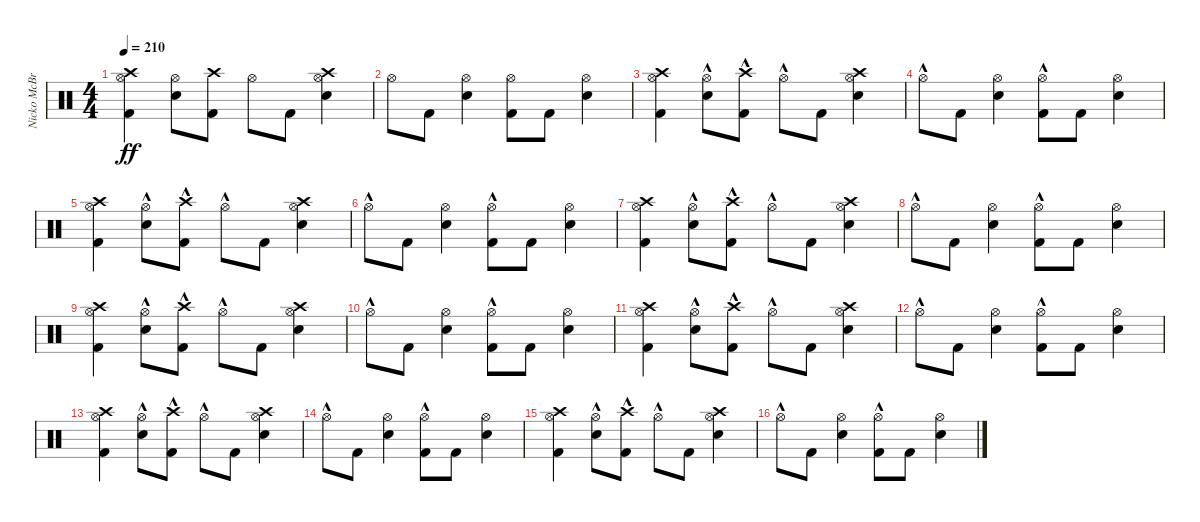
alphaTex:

\track ("Nicko McBrain" "Nicko McBr") {instrument percussion}
\staff {score}
\articulation defaults
\ts (4 4)
\tempo 210
\clef neutral
\ks c
("Kick (hit) 2" "Hi-Hat (open)" "Crash high (hit)").4{dy ff} ("Snare (hit) 2" "Hi-Hat (open)").8 ("Kick (hit) 2" "Crash high (hit)").8 "Hi-Hat (open)".8 "Kick (hit) 2".8 ("Snare (hit) 2" "Hi-Hat (open)" "Crash high (hit)").4 |
"Hi-Hat (open)".8 "Kick (hit) 2".8 ("Snare (hit) 2" "Hi-Hat (open)").4 ("Kick (hit) 2" "Hi-Hat (open)").8 "Kick (hit) 2".8 ("Snare (hit) 2" "Hi-Hat (open)").4 |
("Kick (hit) 2" "Hi-Hat (open)" "Crash high (hit)").4 ("Snare (hit) 2" "Hi-Hat (open)"{hac}).8 ("Kick (hit) 2" "Crash high (hit)"{hac}).8 "Hi-Hat (open)"{hac}.8 "Kick (hit) 2".8 ("Snare (hit) 2" "Hi-Hat (open)" "Crash high (hit)").4 |
"Hi-Hat (open)"{hac}.8 "Kick (hit) 2".8 ("Snare (hit) 2" "Hi-Hat (open)").4 ("Kick (hit) 2" "Hi-Hat (open)"{hac}).8 "Kick (hit) 2".8 ("Snare (hit) 2" "Hi-Hat (open)").4 |
("Kick (hit) 2" "Hi-Hat (open)" "Crash high (hit)").4 ("Snare (hit) 2" "Hi-Hat (open)"{hac}).8 ("Kick (hit) 2" "Crash high (hit)"{hac}).8 "Hi-Hat (open)"{hac}.8 "Kick (hit) 2".8 ("Snare (hit) 2" "Hi-Hat (open)" "Crash high (hit)").4 |
"Hi-Hat (open)"{hac}.8 "Kick (hit) 2".8 ("Snare (hit) 2" "Hi-Hat (open)").4 ("Kick (hit) 2" "Hi-Hat (open)"{hac}).8 "Kick (hit) 2".8 ("Snare (hit) 2" "Hi-Hat (open)").4 |
("Kick (hit) 2" "Hi-Hat (open)" "Crash high (hit)").4 ("Snare (hit) 2" "Hi-Hat (open)"{hac}).8 ("Kick (hit) 2" "Crash high (hit)"{hac}).8 "Hi-Hat (open)"{hac}.8 "Kick (hit) 2".8 ("Snare (hit) 2" "Hi-Hat (open)" "Crash high (hit)").4 |
"Hi-Hat (open)"{hac}.8 "Kick (hit) 2".8 ("Snare (hit) 2" "Hi-Hat (open)").4 ("Kick (hit) 2" "Hi-Hat (open)"{hac}).8 "Kick (hit) 2".8 ("Snare (hit) 2" "Hi-Hat (open)").4 |
("Kick (hit) 2" "Hi-Hat (open)" "Crash high (hit)").4 ("Snare (hit) 2" "Hi-Hat (open)"{hac}).8 ("Kick (hit) 2" "Crash high (hit)"{hac}).8 "Hi-Hat (open)"{hac}.8 "Kick (hit) 2".8 ("Snare (hit) 2" "Hi-Hat (open)" "Crash high (hit)").4 |
"Hi-Hat (open)"{hac}.8 "Kick (hit) 2".8 ("Snare (hit) 2" "Hi-Hat (open)").4 ("Kick (hit) 2" "Hi-Hat (open)"{hac}).8 "Kick (hit) 2".8 ("Snare (hit) 2" "Hi-Hat (open)").4 |
("Kick (hit) 2" "Hi-Hat (open)" "Crash high (hit)").4 ("Snare (hit) 2" "Hi-Hat (open)"{hac}).8 ("Kick (hit) 2" "Crash high (hit)"{hac}).8 "Hi-Hat (open)"{hac}.8 "Kick (hit) 2".8 ("Snare (hit) 2" "Hi-Hat (open)" "Crash high (hit)").4 |
"Hi-Hat (open)"{hac}.8 "Kick (hit) 2".8 ("Snare (hit) 2" "Hi-Hat (open)").4 ("Kick (hit) 2" "Hi-Hat (open)"{hac}).8 "Kick (hit) 2".8 ("Snare (hit) 2" "Hi-Hat (open)").4 |
("Kick (hit) 2" "Hi-Hat (open)" "Crash high (hit)").4 ("Snare (hit) 2" "Hi-Hat (open)"{hac}).8 ("Kick (hit) 2" "Crash high (hit)"{hac}).8 "Hi-Hat (open)"{hac}.8 "Kick (hit) 2".8 ("Snare (hit) 2" "Hi-Hat (open)" "Crash high (hit)").4 |
"Hi-Hat (open)"{hac}.8 "Kick (hit) 2".8 ("Snare (hit) 2" "Hi-Hat (open)").4 ("Kick (hit) 2" "Hi-Hat (open)"{hac}).8 "Kick (hit) 2".8 ("Snare (hit) 2" "Hi-Hat (open)").4 |
("Kick (hit) 2" "Hi-Hat (open)" "Crash high (hit)").4 ("Snare (hit) 2" "Hi-Hat (open)"{hac}).8 ("Kick (hit) 2" "Crash high (hit)"{hac}).8 "Hi-Hat (open)"{hac}.8 "Kick (hit) 2".8 ("Snare (hit) 2" "Hi-Hat (open)" "Crash high (hit)").4 |
"Hi-Hat (open)"{hac}.8 "Kick (hit) 2".8 ("Snare (hit) 2" "Hi-Hat (open)").4 ("Kick (hit) 2" "Hi-Hat (open)"{hac}).8 "Kick (hit) 2".8 ("Snare (hit) 2" "Hi-Hat (open)").4
